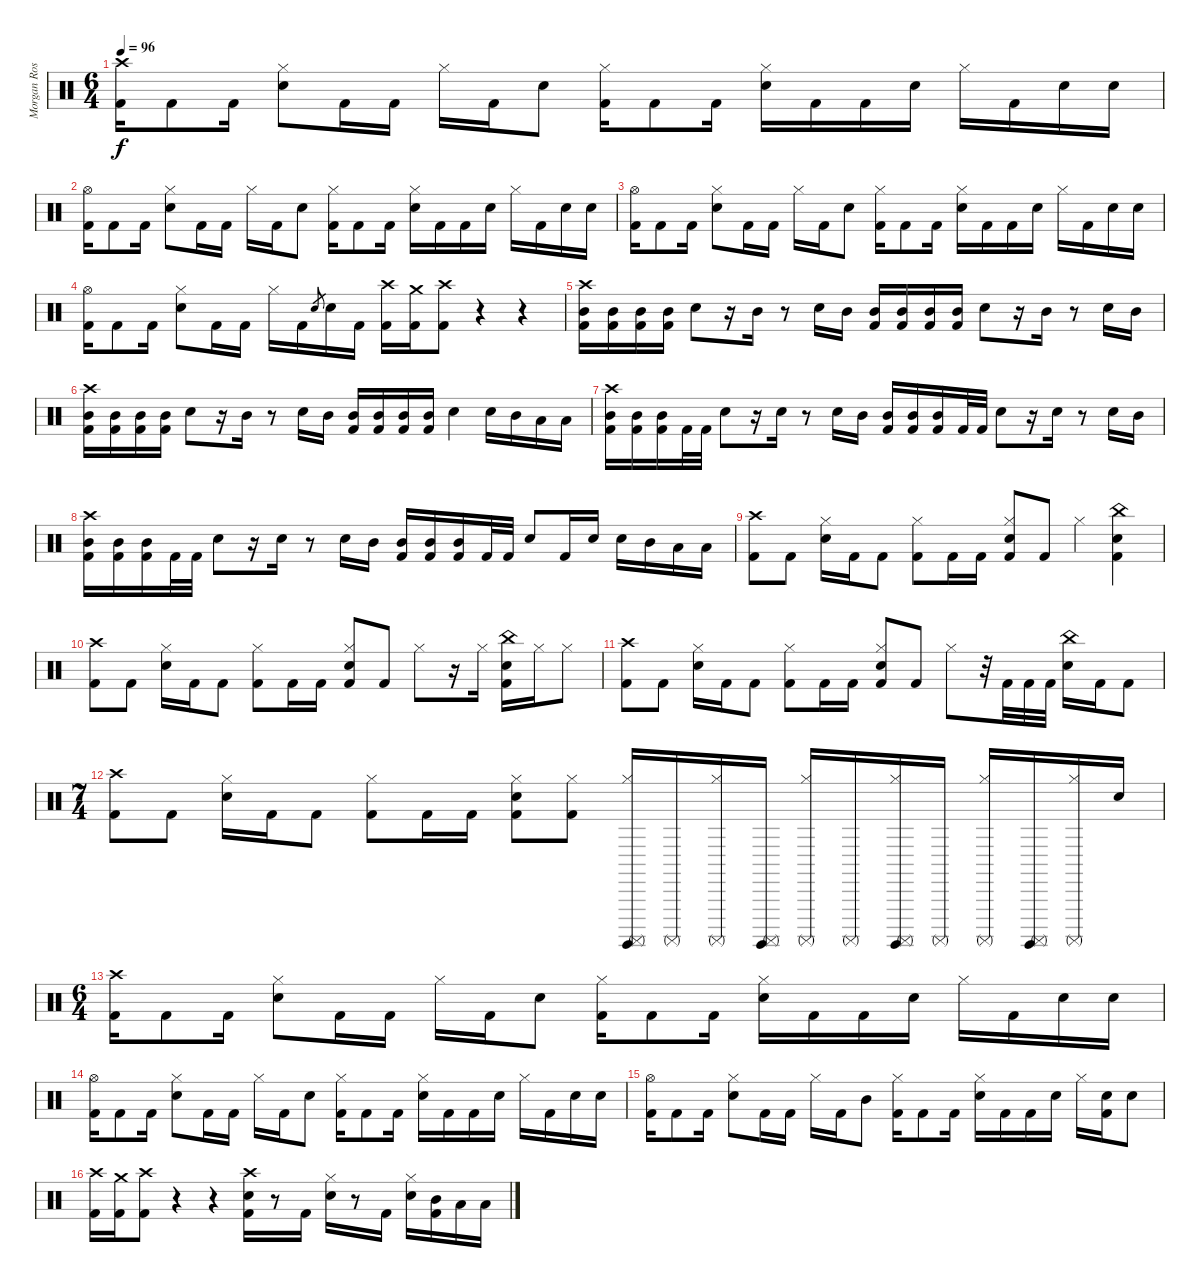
\track ("Morgan Rose - Drums" "Morgan Ros") {instrument percussion}
\staff {score}
\articulation defaults
\ts (6 4)
\tempo 96
\clef neutral
\ks c
("Crash high (hit)" "Kick (hit) 2").16{dy f} "Kick (hit) 2".8 "Kick (hit) 2".16 ("Hi-Hat (closed)" "Electric Snare (hit)").8 "Kick (hit) 2".16 "Kick (hit) 2".16 "Hi-Hat (closed)".16 "Kick (hit) 2".16 "Electric Snare (hit)".8 ("Hi-Hat (closed)" "Kick (hit) 2").16 "Kick (hit) 2".8 "Kick (hit) 2".16 ("Hi-Hat (closed)" "Electric Snare (hit)").16 "Kick (hit) 2".16 "Kick (hit) 2".16 "Electric Snare (hit)".16 "Hi-Hat (closed)".16 "Kick (hit) 2".16 "Electric Snare (hit)".16 "Electric Snare (hit)".16 |
("Hi-Hat (open)" "Kick (hit) 2").16 "Kick (hit) 2".8 "Kick (hit) 2".16 ("Hi-Hat (closed)" "Electric Snare (hit)").8 "Kick (hit) 2".16 "Kick (hit) 2".16 "Hi-Hat (closed)".16 "Kick (hit) 2".16 "Electric Snare (hit)".8 ("Hi-Hat (closed)" "Kick (hit) 2").16 "Kick (hit) 2".8 "Kick (hit) 2".16 ("Hi-Hat (closed)" "Electric Snare (hit)").16 "Kick (hit) 2".16 "Kick (hit) 2".16 "Electric Snare (hit)".16 "Hi-Hat (closed)".16 "Kick (hit) 2".16 "Electric Snare (hit)".16 "Electric Snare (hit)".16 |
("Hi-Hat (open)" "Kick (hit) 2").16 "Kick (hit) 2".8 "Kick (hit) 2".16 ("Hi-Hat (closed)" "Electric Snare (hit)").8 "Kick (hit) 2".16 "Kick (hit) 2".16 "Hi-Hat (closed)".16 "Kick (hit) 2".16 "Electric Snare (hit)".8 ("Hi-Hat (closed)" "Kick (hit) 2").16 "Kick (hit) 2".8 "Kick (hit) 2".16 ("Hi-Hat (closed)" "Electric Snare (hit)").16 "Kick (hit) 2".16 "Kick (hit) 2".16 "Electric Snare (hit)".16 "Hi-Hat (closed)".16 "Kick (hit) 2".16 "Electric Snare (hit)".16 "Electric Snare (hit)".16 |
("Hi-Hat (open)" "Kick (hit) 2").16 "Kick (hit) 2".8 "Kick (hit) 2".16 ("Hi-Hat (closed)" "Electric Snare (hit)").8 "Kick (hit) 2".16 "Kick (hit) 2".16 "Hi-Hat (closed)".16 "Kick (hit) 2".16 "Electric Snare (hit)".8{gr} "Electric Snare (hit)".16 "Kick (hit) 2".16 ("Crash high (hit)" "Kick (hit) 2").16 ("Crash medium (hit)" "Kick (hit) 2").16 ("Crash high (hit)" "Kick (hit) 2").8 r.4 r.4 |
("Crash high (hit)" "Mid Tom (hit)" "Kick (hit) 2").16 ("Mid Tom (hit)" "Kick (hit) 2").16 ("Mid Tom (hit)" "Kick (hit) 2").16 ("Mid Tom (hit)" "Kick (hit) 2").16 "Electric Snare (hit)".8 r.16 "Mid Tom (hit)".16 r.8 "Electric Snare (hit)".16 "Mid Tom (hit)".16 ("Mid Tom (hit)" "Kick (hit) 2").16 ("Mid Tom (hit)" "Kick (hit) 2").16 ("Mid Tom (hit)" "Kick (hit) 2").16 ("Mid Tom (hit)" "Kick (hit) 2").16 "Electric Snare (hit)".8 r.16 "Mid Tom (hit)".16 r.8 "Electric Snare (hit)".16 "Mid Tom (hit)".16 |
("Crash high (hit)" "Mid Tom (hit)" "Kick (hit) 2").16 ("Mid Tom (hit)" "Kick (hit) 2").16 ("Mid Tom (hit)" "Kick (hit) 2").16 ("Mid Tom (hit)" "Kick (hit) 2").16 "Electric Snare (hit)".8 r.16 "Mid Tom (hit)".16 r.8 "Electric Snare (hit)".16 "Mid Tom (hit)".16 ("Mid Tom (hit)" "Kick (hit) 2").16 ("Mid Tom (hit)" "Kick (hit) 2").16 ("Mid Tom (hit)" "Kick (hit) 2").16 ("Mid Tom (hit)" "Kick (hit) 2").16 "Electric Snare (hit)".4 "Electric Snare (hit)".16 "Mid Tom (hit)".16 "Low Tom (hit)".16 "Low Tom (hit)".16 |
("Crash high (hit)" "Mid Tom (hit)" "Kick (hit) 2").16 ("Mid Tom (hit)" "Kick (hit) 2").16 ("Mid Tom (hit)" "Kick (hit) 2").16 "Kick (hit) 2".32 "Kick (hit) 2".32 "Electric Snare (hit)".8 r.16 "Electric Snare (hit)".16 r.8 "Electric Snare (hit)".16 "Mid Tom (hit)".16 ("Mid Tom (hit)" "Kick (hit) 2").16 ("Mid Tom (hit)" "Kick (hit) 2").16 ("Mid Tom (hit)" "Kick (hit) 2").16 "Kick (hit) 2".32 "Kick (hit) 2".32 "Electric Snare (hit)".8 r.16 "Electric Snare (hit)".16 r.8 "Electric Snare (hit)".16 "Mid Tom (hit)".16 |
("Crash high (hit)" "Mid Tom (hit)" "Kick (hit) 2").16 ("Mid Tom (hit)" "Kick (hit) 2").16 ("Mid Tom (hit)" "Kick (hit) 2").16 "Kick (hit) 2".32 "Kick (hit) 2".32 "Electric Snare (hit)".8 r.16 "Electric Snare (hit)".16 r.8 "Electric Snare (hit)".16 "Mid Tom (hit)".16 ("Mid Tom (hit)" "Kick (hit) 2").16 ("Mid Tom (hit)" "Kick (hit) 2").16 ("Mid Tom (hit)" "Kick (hit) 2").16 "Kick (hit) 2".32 "Kick (hit) 2".32 "Electric Snare (hit)".8 "Kick (hit) 2".16 "Electric Snare (hit)".16 "Electric Snare (hit)".16 "Mid Tom (hit)".16 "Low Tom (hit)".16 "Low Tom (hit)".16 |
("Crash high (hit)" "Kick (hit) 2").8 "Kick (hit) 2".8 ("Hi-Hat (closed)" "Electric Snare (hit)").16 "Kick (hit) 2".16 "Kick (hit) 2".8 ("Hi-Hat (closed)" "Kick (hit) 2").8 "Kick (hit) 2".16 "Kick (hit) 2".16 ("Hi-Hat (closed)" "Electric Snare (hit)" "Kick (hit) 2").8 "Kick (hit) 2".8 "Hi-Hat (closed)".4 ("China (hit)" "Electric Snare (hit)" "Kick (hit) 2").4 |
("Crash high (hit)" "Kick (hit) 2").8 "Kick (hit) 2".8 ("Hi-Hat (closed)" "Electric Snare (hit)").16 "Kick (hit) 2".16 "Kick (hit) 2".8 ("Hi-Hat (closed)" "Kick (hit) 2").8 "Kick (hit) 2".16 "Kick (hit) 2".16 ("Hi-Hat (closed)" "Electric Snare (hit)" "Kick (hit) 2").8 "Kick (hit) 2".8 "Hi-Hat (closed)".8 r.16 "Hi-Hat (closed)".16 ("China (hit)" "Electric Snare (hit)" "Kick (hit) 2").16 "Hi-Hat (closed)".16 "Hi-Hat (closed)".8 |
("Crash high (hit)" "Kick (hit) 2").8 "Kick (hit) 2".8 ("Hi-Hat (closed)" "Electric Snare (hit)").16 "Kick (hit) 2".16 "Kick (hit) 2".8 ("Hi-Hat (closed)" "Kick (hit) 2").8 "Kick (hit) 2".16 "Kick (hit) 2".16 ("Hi-Hat (closed)" "Electric Snare (hit)" "Kick (hit) 2").8 "Kick (hit) 2".8 "Hi-Hat (closed)".8 r.32 "Kick (hit) 2".32 "Kick (hit) 2".32 "Kick (hit) 2".32 ("China (hit)" "Electric Snare (hit)").16 "Kick (hit) 2".16 "Kick (hit) 2".8 |
\ts (7 4)
("Crash high (hit)" "Kick (hit) 2").8 "Kick (hit) 2".8 ("Hi-Hat (closed)" "Electric Snare (hit)").16 "Kick (hit) 2".16 "Kick (hit) 2".8 ("Hi-Hat (closed)" "Kick (hit) 2").8 "Kick (hit) 2".16 "Kick (hit) 2".16 ("Hi-Hat (closed)" "Electric Snare (hit)" "Kick (hit) 2").8 ("Hi-Hat (closed)" "Kick (hit) 2").8 ("Hi-Hat (closed)" "Surdo (hit)" "Surdo (mute)").16 "Surdo (mute)".16 ("Hi-Hat (closed)" "Surdo (mute)").16 ("Surdo (hit)" "Surdo (mute)").16 ("Hi-Hat (closed)" "Surdo (mute)").16 "Surdo (mute)".16 ("Hi-Hat (closed)" "Surdo (hit)" "Surdo (mute)").16 "Surdo (mute)".16 ("Hi-Hat (closed)" "Surdo (mute)").16 ("Surdo (hit)" "Surdo (mute)").16 ("Hi-Hat (closed)" "Surdo (mute)").16 "Electric Snare (hit)".16 |
\ts (6 4)
("Crash high (hit)" "Kick (hit) 2").16 "Kick (hit) 2".8 "Kick (hit) 2".16 ("Hi-Hat (closed)" "Electric Snare (hit)").8 "Kick (hit) 2".16 "Kick (hit) 2".16 "Hi-Hat (closed)".16 "Kick (hit) 2".16 "Electric Snare (hit)".8 ("Hi-Hat (closed)" "Kick (hit) 2").16 "Kick (hit) 2".8 "Kick (hit) 2".16 ("Hi-Hat (closed)" "Electric Snare (hit)").16 "Kick (hit) 2".16 "Kick (hit) 2".16 "Electric Snare (hit)".16 "Hi-Hat (closed)".16 "Kick (hit) 2".16 "Electric Snare (hit)".16 "Electric Snare (hit)".16 |
("Hi-Hat (open)" "Kick (hit) 2").16 "Kick (hit) 2".8 "Kick (hit) 2".16 ("Hi-Hat (closed)" "Electric Snare (hit)").8 "Kick (hit) 2".16 "Kick (hit) 2".16 "Hi-Hat (closed)".16 "Kick (hit) 2".16 "Electric Snare (hit)".8 ("Hi-Hat (closed)" "Kick (hit) 2").16 "Kick (hit) 2".8 "Kick (hit) 2".16 ("Hi-Hat (closed)" "Electric Snare (hit)").16 "Kick (hit) 2".16 "Kick (hit) 2".16 "Electric Snare (hit)".16 "Hi-Hat (closed)".16 "Kick (hit) 2".16 "Electric Snare (hit)".16 "Electric Snare (hit)".16 |
("Hi-Hat (open)" "Kick (hit) 2").16 "Kick (hit) 2".8 "Kick (hit) 2".16 ("Hi-Hat (closed)" "Electric Snare (hit)").8 "Kick (hit) 2".16 "Kick (hit) 2".16 "Hi-Hat (closed)".16 "Kick (hit) 2".16 "Mid Tom (hit)".8 ("Hi-Hat (closed)" "Kick (hit) 2").16 "Kick (hit) 2".8 "Kick (hit) 2".16 ("Hi-Hat (closed)" "Electric Snare (hit)").16 "Kick (hit) 2".16 "Kick (hit) 2".16 "Electric Snare (hit)".16 "Hi-Hat (closed)".16 ("Electric Snare (hit)" "Kick (hit) 2").16 "Electric Snare (hit)".8 |
("Crash high (hit)" "Kick (hit) 2").16 ("Crash medium (hit)" "Kick (hit) 2").16 ("Crash high (hit)" "Kick (hit) 2").8 r.4 r.4 ("Crash high (hit)" "Electric Snare (hit)" "Kick (hit) 2").16 r.8 "Kick (hit) 2".16 ("Hi-Hat (closed)" "Electric Snare (hit)").16 r.8 "Kick (hit) 2".16 ("Hi-Hat (closed)" "Electric Snare (hit)").16 ("Mid Tom (hit)" "Kick (hit) 2").16 "Low Tom (hit)".16 "Low Tom (hit)".16
